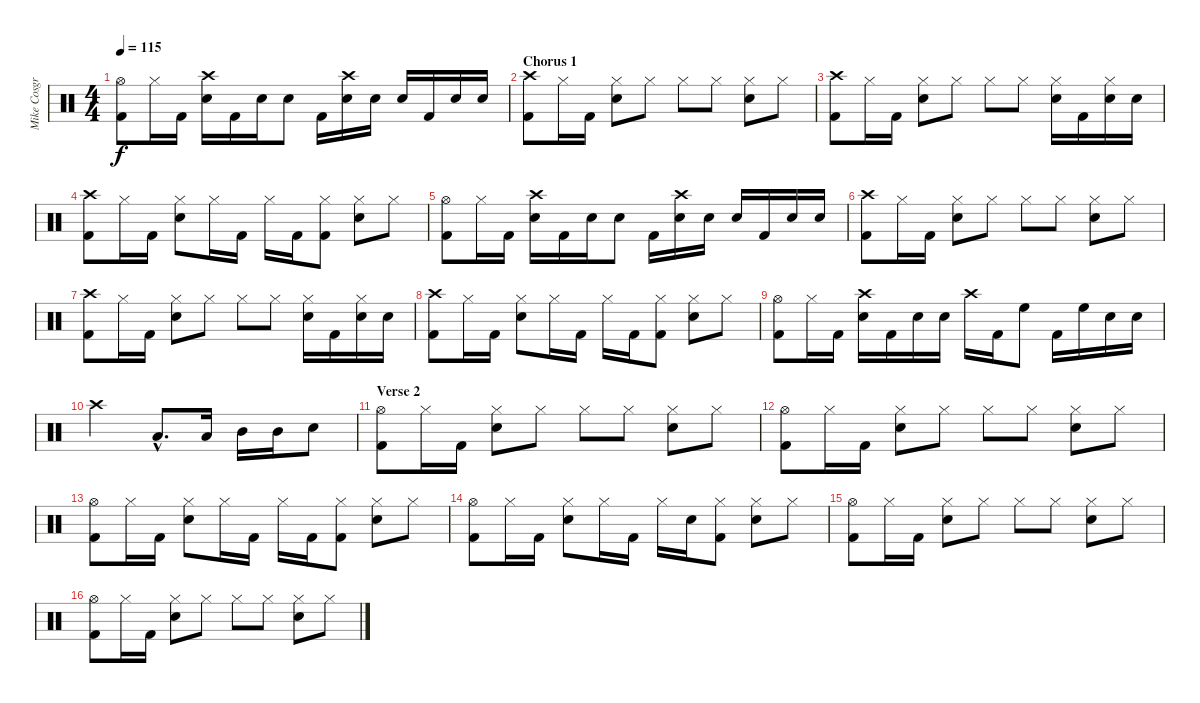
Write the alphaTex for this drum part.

\track ("Mike Cosgrove" "Mike Cosgr") {instrument percussion}
\staff {score}
\articulation defaults
\ts (4 4)
\tempo 115
\clef neutral
\ks c
("Hi-Hat (open)" "Kick (hit) 2").8{dy f} "Hi-Hat (closed)".16 "Kick (hit) 2".16 ("Crash high (hit)" "Electric Snare (hit)").16 "Kick (hit) 2".16 "Electric Snare (hit)".16 "Electric Snare (hit)".8 "Kick (hit) 2".16 ("Crash high (hit)" "Electric Snare (hit)").16 "Electric Snare (hit)".16 "Electric Snare (hit)".16 "Kick (hit) 2".16 "Electric Snare (hit)".16 "Electric Snare (hit)".16 |
\section ("" "Chorus 1")
("Crash high (hit)" "Kick (hit) 2").8 "Hi-Hat (closed)".16 "Kick (hit) 2".16 ("Hi-Hat (closed)" "Electric Snare (hit)").8 "Hi-Hat (closed)".8 "Hi-Hat (closed)".8 "Hi-Hat (closed)".8 ("Hi-Hat (closed)" "Electric Snare (hit)").8 "Hi-Hat (closed)".8 |
("Crash high (hit)" "Kick (hit) 2").8 "Hi-Hat (closed)".16 "Kick (hit) 2".16 ("Hi-Hat (closed)" "Electric Snare (hit)").8 "Hi-Hat (closed)".8 "Hi-Hat (closed)".8 "Hi-Hat (closed)".8 ("Hi-Hat (closed)" "Electric Snare (hit)").16 "Kick (hit) 2".16 ("Hi-Hat (closed)" "Electric Snare (hit)").16 "Electric Snare (hit)".16 |
("Crash high (hit)" "Kick (hit) 2").8 "Hi-Hat (closed)".16 "Kick (hit) 2".16 ("Hi-Hat (closed)" "Electric Snare (hit)").8 "Hi-Hat (closed)".16 "Kick (hit) 2".16 "Hi-Hat (closed)".16 "Kick (hit) 2".16 ("Hi-Hat (closed)" "Kick (hit) 2").8 ("Hi-Hat (closed)" "Electric Snare (hit)").8 "Hi-Hat (closed)".8 |
("Hi-Hat (open)" "Kick (hit) 2").8 "Hi-Hat (closed)".16 "Kick (hit) 2".16 ("Crash high (hit)" "Electric Snare (hit)").16 "Kick (hit) 2".16 "Electric Snare (hit)".16 "Electric Snare (hit)".8 "Kick (hit) 2".16 ("Crash high (hit)" "Electric Snare (hit)").16 "Electric Snare (hit)".16 "Electric Snare (hit)".16 "Kick (hit) 2".16 "Electric Snare (hit)".16 "Electric Snare (hit)".16 |
("Crash high (hit)" "Kick (hit) 2").8 "Hi-Hat (closed)".16 "Kick (hit) 2".16 ("Hi-Hat (closed)" "Electric Snare (hit)").8 "Hi-Hat (closed)".8 "Hi-Hat (closed)".8 "Hi-Hat (closed)".8 ("Hi-Hat (closed)" "Electric Snare (hit)").8 "Hi-Hat (closed)".8 |
("Crash high (hit)" "Kick (hit) 2").8 "Hi-Hat (closed)".16 "Kick (hit) 2".16 ("Hi-Hat (closed)" "Electric Snare (hit)").8 "Hi-Hat (closed)".8 "Hi-Hat (closed)".8 "Hi-Hat (closed)".8 ("Hi-Hat (closed)" "Electric Snare (hit)").16 "Kick (hit) 2".16 ("Hi-Hat (closed)" "Electric Snare (hit)").16 "Electric Snare (hit)".16 |
("Crash high (hit)" "Kick (hit) 2").8 "Hi-Hat (closed)".16 "Kick (hit) 2".16 ("Hi-Hat (closed)" "Electric Snare (hit)").8 "Hi-Hat (closed)".16 "Kick (hit) 2".16 "Hi-Hat (closed)".16 "Kick (hit) 2".16 ("Hi-Hat (closed)" "Kick (hit) 2").8 ("Hi-Hat (closed)" "Electric Snare (hit)").8 "Hi-Hat (closed)".8 |
("Hi-Hat (open)" "Kick (hit) 2").8 "Hi-Hat (closed)".16 "Kick (hit) 2".16 ("Crash high (hit)" "Electric Snare (hit)").16 "Kick (hit) 2".16 "Electric Snare (hit)".16 "Electric Snare (hit)".16 "Crash high (hit)".16 "Kick (hit) 2".16 "High Floor Tom (hit)".8 "Kick (hit) 2".16 "High Floor Tom (hit)".16 "Electric Snare (hit)".16 "Electric Snare (hit)".16 |
"Crash high (hit)".2 "Low Tom (hit)"{hac}.8{d} "Low Tom (hit)".16 "Mid Tom (hit)".16 "Mid Tom (hit)".16 "Electric Snare (hit)".8 |
\section ("" "Verse 2")
("Hi-Hat (open)" "Kick (hit) 2").8 "Hi-Hat (closed)".16 "Kick (hit) 2".16 ("Hi-Hat (closed)" "Electric Snare (hit)").8 "Hi-Hat (closed)".8 "Hi-Hat (closed)".8 "Hi-Hat (closed)".8 ("Hi-Hat (closed)" "Electric Snare (hit)").8 "Hi-Hat (closed)".8 |
("Hi-Hat (open)" "Kick (hit) 2").8 "Hi-Hat (closed)".16 "Kick (hit) 2".16 ("Hi-Hat (closed)" "Electric Snare (hit)").8 "Hi-Hat (closed)".8 "Hi-Hat (closed)".8 "Hi-Hat (closed)".8 ("Hi-Hat (closed)" "Electric Snare (hit)").8 "Hi-Hat (closed)".8 |
("Hi-Hat (open)" "Kick (hit) 2").8 "Hi-Hat (closed)".16 "Kick (hit) 2".16 ("Hi-Hat (closed)" "Electric Snare (hit)").8 "Hi-Hat (closed)".16 "Kick (hit) 2".16 "Hi-Hat (closed)".16 "Kick (hit) 2".16 ("Hi-Hat (closed)" "Kick (hit) 2").8 ("Hi-Hat (closed)" "Electric Snare (hit)").8 "Hi-Hat (closed)".8 |
("Hi-Hat (open)" "Kick (hit) 2").8 "Hi-Hat (closed)".16 "Kick (hit) 2".16 ("Hi-Hat (closed)" "Electric Snare (hit)").8 "Hi-Hat (closed)".16 "Kick (hit) 2".16 "Hi-Hat (closed)".16 "Electric Snare (hit)".16 ("Hi-Hat (closed)" "Kick (hit) 2").8 ("Hi-Hat (closed)" "Electric Snare (hit)").8 "Hi-Hat (closed)".8 |
("Hi-Hat (open)" "Kick (hit) 2").8 "Hi-Hat (closed)".16 "Kick (hit) 2".16 ("Hi-Hat (closed)" "Electric Snare (hit)").8 "Hi-Hat (closed)".8 "Hi-Hat (closed)".8 "Hi-Hat (closed)".8 ("Hi-Hat (closed)" "Electric Snare (hit)").8 "Hi-Hat (closed)".8 |
("Hi-Hat (open)" "Kick (hit) 2").8 "Hi-Hat (closed)".16 "Kick (hit) 2".16 ("Hi-Hat (closed)" "Electric Snare (hit)").8 "Hi-Hat (closed)".8 "Hi-Hat (closed)".8 "Hi-Hat (closed)".8 ("Hi-Hat (closed)" "Electric Snare (hit)").8 "Hi-Hat (closed)".8
